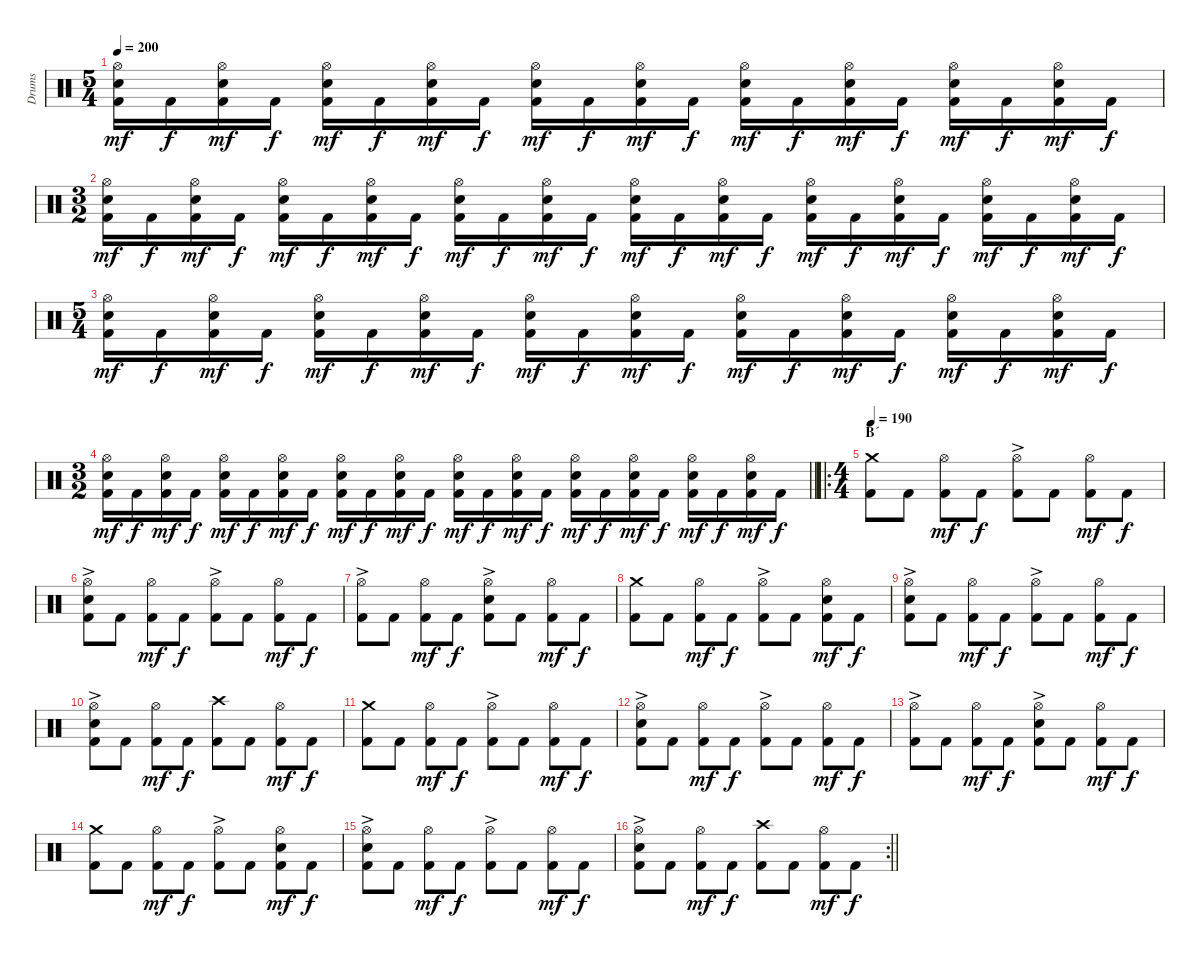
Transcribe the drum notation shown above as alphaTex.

\track ("Drums" "Drums") {instrument percussion}
\staff {score}
\articulation defaults
\ts (5 4)
\tempo 200
\clef neutral
\ks c
("Hi-Hat (open)" "Electric Snare (hit)" "Kick (hit) 2").16{dy mf} "Kick (hit) 2".16{dy f} ("Hi-Hat (open)" "Electric Snare (hit)" "Kick (hit) 2").16{dy mf} "Kick (hit) 2".16{dy f} ("Hi-Hat (open)" "Electric Snare (hit)" "Kick (hit) 2").16{dy mf} "Kick (hit) 2".16{dy f} ("Hi-Hat (open)" "Electric Snare (hit)" "Kick (hit) 2").16{dy mf} "Kick (hit) 2".16{dy f} ("Hi-Hat (open)" "Electric Snare (hit)" "Kick (hit) 2").16{dy mf} "Kick (hit) 2".16{dy f} ("Hi-Hat (open)" "Electric Snare (hit)" "Kick (hit) 2").16{dy mf} "Kick (hit) 2".16{dy f} ("Hi-Hat (open)" "Electric Snare (hit)" "Kick (hit) 2").16{dy mf} "Kick (hit) 2".16{dy f} ("Hi-Hat (open)" "Electric Snare (hit)" "Kick (hit) 2").16{dy mf} "Kick (hit) 2".16{dy f} ("Hi-Hat (open)" "Electric Snare (hit)" "Kick (hit) 2").16{dy mf} "Kick (hit) 2".16{dy f} ("Hi-Hat (open)" "Electric Snare (hit)" "Kick (hit) 2").16{dy mf} "Kick (hit) 2".16{dy f} |
\ts (3 2)
("Hi-Hat (open)" "Electric Snare (hit)" "Kick (hit) 2").16{dy mf} "Kick (hit) 2".16{dy f} ("Hi-Hat (open)" "Electric Snare (hit)" "Kick (hit) 2").16{dy mf} "Kick (hit) 2".16{dy f} ("Hi-Hat (open)" "Electric Snare (hit)" "Kick (hit) 2").16{dy mf} "Kick (hit) 2".16{dy f} ("Hi-Hat (open)" "Electric Snare (hit)" "Kick (hit) 2").16{dy mf} "Kick (hit) 2".16{dy f} ("Hi-Hat (open)" "Electric Snare (hit)" "Kick (hit) 2").16{dy mf} "Kick (hit) 2".16{dy f} ("Hi-Hat (open)" "Electric Snare (hit)" "Kick (hit) 2").16{dy mf} "Kick (hit) 2".16{dy f} ("Hi-Hat (open)" "Electric Snare (hit)" "Kick (hit) 2").16{dy mf} "Kick (hit) 2".16{dy f} ("Hi-Hat (open)" "Electric Snare (hit)" "Kick (hit) 2").16{dy mf} "Kick (hit) 2".16{dy f} ("Hi-Hat (open)" "Electric Snare (hit)" "Kick (hit) 2").16{dy mf} "Kick (hit) 2".16{dy f} ("Hi-Hat (open)" "Electric Snare (hit)" "Kick (hit) 2").16{dy mf} "Kick (hit) 2".16{dy f} ("Hi-Hat (open)" "Electric Snare (hit)" "Kick (hit) 2").16{dy mf} "Kick (hit) 2".16{dy f} ("Hi-Hat (open)" "Electric Snare (hit)" "Kick (hit) 2").16{dy mf} "Kick (hit) 2".16{dy f} |
\ts (5 4)
("Hi-Hat (open)" "Electric Snare (hit)" "Kick (hit) 2").16{dy mf} "Kick (hit) 2".16{dy f} ("Hi-Hat (open)" "Electric Snare (hit)" "Kick (hit) 2").16{dy mf} "Kick (hit) 2".16{dy f} ("Hi-Hat (open)" "Electric Snare (hit)" "Kick (hit) 2").16{dy mf} "Kick (hit) 2".16{dy f} ("Hi-Hat (open)" "Electric Snare (hit)" "Kick (hit) 2").16{dy mf} "Kick (hit) 2".16{dy f} ("Hi-Hat (open)" "Electric Snare (hit)" "Kick (hit) 2").16{dy mf} "Kick (hit) 2".16{dy f} ("Hi-Hat (open)" "Electric Snare (hit)" "Kick (hit) 2").16{dy mf} "Kick (hit) 2".16{dy f} ("Hi-Hat (open)" "Electric Snare (hit)" "Kick (hit) 2").16{dy mf} "Kick (hit) 2".16{dy f} ("Hi-Hat (open)" "Electric Snare (hit)" "Kick (hit) 2").16{dy mf} "Kick (hit) 2".16{dy f} ("Hi-Hat (open)" "Electric Snare (hit)" "Kick (hit) 2").16{dy mf} "Kick (hit) 2".16{dy f} ("Hi-Hat (open)" "Electric Snare (hit)" "Kick (hit) 2").16{dy mf} "Kick (hit) 2".16{dy f} |
\ts (3 2)
\barLineRight lightlight
("Hi-Hat (open)" "Electric Snare (hit)" "Kick (hit) 2").16{dy mf} "Kick (hit) 2".16{dy f} ("Hi-Hat (open)" "Electric Snare (hit)" "Kick (hit) 2").16{dy mf} "Kick (hit) 2".16{dy f} ("Hi-Hat (open)" "Electric Snare (hit)" "Kick (hit) 2").16{dy mf} "Kick (hit) 2".16{dy f} ("Hi-Hat (open)" "Electric Snare (hit)" "Kick (hit) 2").16{dy mf} "Kick (hit) 2".16{dy f} ("Hi-Hat (open)" "Electric Snare (hit)" "Kick (hit) 2").16{dy mf} "Kick (hit) 2".16{dy f} ("Hi-Hat (open)" "Electric Snare (hit)" "Kick (hit) 2").16{dy mf} "Kick (hit) 2".16{dy f} ("Hi-Hat (open)" "Electric Snare (hit)" "Kick (hit) 2").16{dy mf} "Kick (hit) 2".16{dy f} ("Hi-Hat (open)" "Electric Snare (hit)" "Kick (hit) 2").16{dy mf} "Kick (hit) 2".16{dy f} ("Hi-Hat (open)" "Electric Snare (hit)" "Kick (hit) 2").16{dy mf} "Kick (hit) 2".16{dy f} ("Hi-Hat (open)" "Electric Snare (hit)" "Kick (hit) 2").16{dy mf} "Kick (hit) 2".16{dy f} ("Hi-Hat (open)" "Electric Snare (hit)" "Kick (hit) 2").16{dy mf} "Kick (hit) 2".16{dy f} ("Hi-Hat (open)" "Electric Snare (hit)" "Kick (hit) 2").16{dy mf} "Kick (hit) 2".16{dy f} |
\ro
\ts (4 4)
\section ("" "B´")
\tempo 190
("Crash medium (hit)" "Kick (hit) 2").8 "Kick (hit) 2".8 ("Hi-Hat (open)" "Kick (hit) 2").8{dy mf} "Kick (hit) 2".8{dy f} ("Hi-Hat (open)"{ac} "Kick (hit) 2").8 "Kick (hit) 2".8 ("Hi-Hat (open)" "Kick (hit) 2").8{dy mf} "Kick (hit) 2".8{dy f} |
("Hi-Hat (open)"{ac} "Electric Snare (hit)" "Kick (hit) 2").8 "Kick (hit) 2".8 ("Hi-Hat (open)" "Kick (hit) 2").8{dy mf} "Kick (hit) 2".8{dy f} ("Hi-Hat (open)"{ac} "Kick (hit) 2").8 "Kick (hit) 2".8 ("Hi-Hat (open)" "Kick (hit) 2").8{dy mf} "Kick (hit) 2".8{dy f} |
("Hi-Hat (open)"{ac} "Kick (hit) 2").8 "Kick (hit) 2".8 ("Hi-Hat (open)" "Kick (hit) 2").8{dy mf} "Kick (hit) 2".8{dy f} ("Hi-Hat (open)"{ac} "Electric Snare (hit)" "Kick (hit) 2").8 "Kick (hit) 2".8 ("Hi-Hat (open)" "Kick (hit) 2").8{dy mf} "Kick (hit) 2".8{dy f} |
("Crash medium (hit)" "Kick (hit) 2").8 "Kick (hit) 2".8 ("Hi-Hat (open)" "Kick (hit) 2").8{dy mf} "Kick (hit) 2".8{dy f} ("Hi-Hat (open)"{ac} "Kick (hit) 2").8 "Kick (hit) 2".8 ("Hi-Hat (open)" "Electric Snare (hit)" "Kick (hit) 2").8{dy mf} "Kick (hit) 2".8{dy f} |
("Hi-Hat (open)"{ac} "Electric Snare (hit)" "Kick (hit) 2").8 "Kick (hit) 2".8 ("Hi-Hat (open)" "Kick (hit) 2").8{dy mf} "Kick (hit) 2".8{dy f} ("Hi-Hat (open)"{ac} "Kick (hit) 2").8 "Kick (hit) 2".8 ("Hi-Hat (open)" "Kick (hit) 2").8{dy mf} "Kick (hit) 2".8{dy f} |
("Hi-Hat (open)"{ac} "Electric Snare (hit)" "Kick (hit) 2").8 "Kick (hit) 2".8 ("Hi-Hat (open)" "Kick (hit) 2").8{dy mf} "Kick (hit) 2".8{dy f} ("Crash high (hit)" "Kick (hit) 2").8 "Kick (hit) 2".8 ("Hi-Hat (open)" "Kick (hit) 2").8{dy mf} "Kick (hit) 2".8{dy f} |
("Crash medium (hit)" "Kick (hit) 2").8 "Kick (hit) 2".8 ("Hi-Hat (open)" "Kick (hit) 2").8{dy mf} "Kick (hit) 2".8{dy f} ("Hi-Hat (open)"{ac} "Kick (hit) 2").8 "Kick (hit) 2".8 ("Hi-Hat (open)" "Kick (hit) 2").8{dy mf} "Kick (hit) 2".8{dy f} |
("Hi-Hat (open)"{ac} "Electric Snare (hit)" "Kick (hit) 2").8 "Kick (hit) 2".8 ("Hi-Hat (open)" "Kick (hit) 2").8{dy mf} "Kick (hit) 2".8{dy f} ("Hi-Hat (open)"{ac} "Kick (hit) 2").8 "Kick (hit) 2".8 ("Hi-Hat (open)" "Kick (hit) 2").8{dy mf} "Kick (hit) 2".8{dy f} |
("Hi-Hat (open)"{ac} "Kick (hit) 2").8 "Kick (hit) 2".8 ("Hi-Hat (open)" "Kick (hit) 2").8{dy mf} "Kick (hit) 2".8{dy f} ("Hi-Hat (open)"{ac} "Electric Snare (hit)" "Kick (hit) 2").8 "Kick (hit) 2".8 ("Hi-Hat (open)" "Kick (hit) 2").8{dy mf} "Kick (hit) 2".8{dy f} |
("Crash medium (hit)" "Kick (hit) 2").8 "Kick (hit) 2".8 ("Hi-Hat (open)" "Kick (hit) 2").8{dy mf} "Kick (hit) 2".8{dy f} ("Hi-Hat (open)"{ac} "Kick (hit) 2").8 "Kick (hit) 2".8 ("Hi-Hat (open)" "Electric Snare (hit)" "Kick (hit) 2").8{dy mf} "Kick (hit) 2".8{dy f} |
("Hi-Hat (open)"{ac} "Electric Snare (hit)" "Kick (hit) 2").8 "Kick (hit) 2".8 ("Hi-Hat (open)" "Kick (hit) 2").8{dy mf} "Kick (hit) 2".8{dy f} ("Hi-Hat (open)"{ac} "Kick (hit) 2").8 "Kick (hit) 2".8 ("Hi-Hat (open)" "Kick (hit) 2").8{dy mf} "Kick (hit) 2".8{dy f} |
\rc 2
\barLineRight lightlight
("Hi-Hat (open)"{ac} "Electric Snare (hit)" "Kick (hit) 2").8 "Kick (hit) 2".8 ("Hi-Hat (open)" "Kick (hit) 2").8{dy mf} "Kick (hit) 2".8{dy f} ("Crash high (hit)" "Kick (hit) 2").8 "Kick (hit) 2".8 ("Hi-Hat (open)" "Kick (hit) 2").8{dy mf} "Kick (hit) 2".8{dy f}
